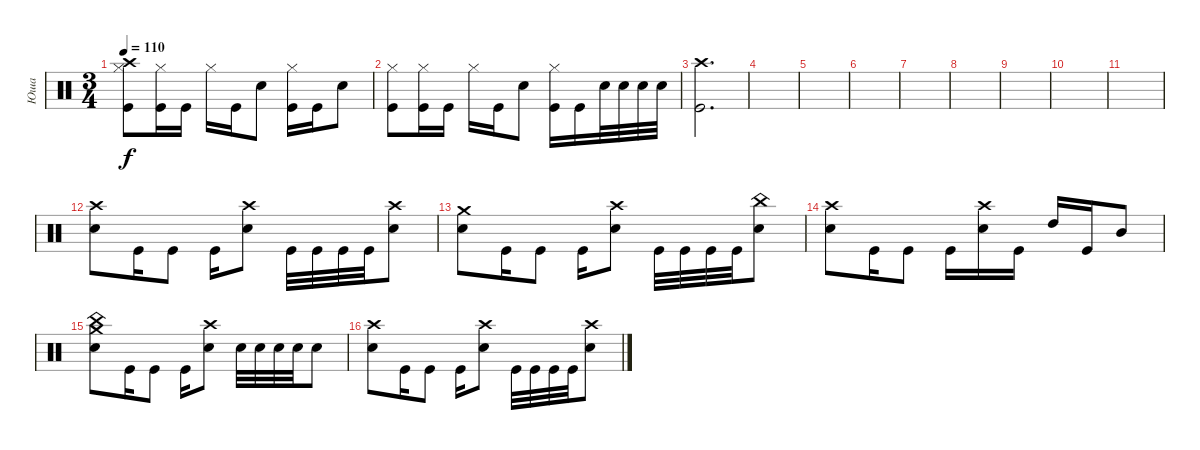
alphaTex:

\track ("Юша" "Юша") {instrument percussion}
\staff {score}
\articulation defaults
\ts (3 4)
\tempo 110
\clef neutral
\ks c
("Hi-Hat (closed)" "Kick (hit)" "Crash high (hit)").8{dy f} ("Kick (hit)" "Hi-Hat (closed)").16 "Kick (hit)".16 "Hi-Hat (closed)".16 "Kick (hit)".16 "Snare (hit) 2".8 ("Kick (hit)" "Hi-Hat (closed)").16 "Kick (hit)".16 "Snare (hit) 2".8 |
("Hi-Hat (closed)" "Kick (hit)").8 ("Kick (hit)" "Hi-Hat (closed)").16 "Kick (hit)".16 "Hi-Hat (closed)".16 "Kick (hit)".16 "Snare (hit) 2".8 ("Kick (hit)" "Hi-Hat (closed)").16 "Kick (hit)".16 "Snare (hit) 2".32 "Snare (hit) 2".32 "Snare (hit) 2".32 "Snare (hit) 2".32 |
("Kick (hit)" "Crash high (hit)").2{d} |
|
|
|
|
|
|
|
|
("Crash high (hit)" "Snare (hit) 2").8 "Kick (hit)".16 "Kick (hit)".8 "Kick (hit)".16 ("Snare (hit) 2" "Crash high (hit)").8 "Kick (hit)".32 "Kick (hit)".32 "Kick (hit)".32 "Kick (hit)".32 ("Snare (hit) 2" "Crash high (hit)").8 |
("Crash medium (hit)" "Snare (hit) 2").8 "Kick (hit)".16 "Kick (hit)".8 "Kick (hit)".16 ("Snare (hit) 2" "Crash high (hit)").8 "Kick (hit)".32 "Kick (hit)".32 "Kick (hit)".32 "Kick (hit)".32 ("Snare (hit) 2" "China (hit)").8 |
("Crash high (hit)" "Snare (hit) 2").8 "Kick (hit)".16 "Kick (hit)".8 "Kick (hit)".16 ("Snare (hit) 2" "Crash high (hit)").16 "Kick (hit)".16 "High Tom (hit)".16 "Kick (hit)".16 "Mid Tom (hit)".8 |
("Crash medium (hit)" "Snare (hit) 2" "China (hit)").8 "Kick (hit)".16 "Kick (hit)".8 "Kick (hit)".16 ("Snare (hit) 2" "Crash high (hit)").8 "Snare (hit) 2".32 "Snare (hit) 2".32 "Snare (hit) 2".32 "Snare (hit) 2".32 "Snare (hit) 2".8 |
("Crash high (hit)" "Snare (hit) 2").8 "Kick (hit)".16 "Kick (hit)".8 "Kick (hit)".16 ("Snare (hit) 2" "Crash high (hit)").8 "Kick (hit)".32 "Kick (hit)".32 "Kick (hit)".32 "Kick (hit)".32 ("Snare (hit) 2" "Crash high (hit)").8
